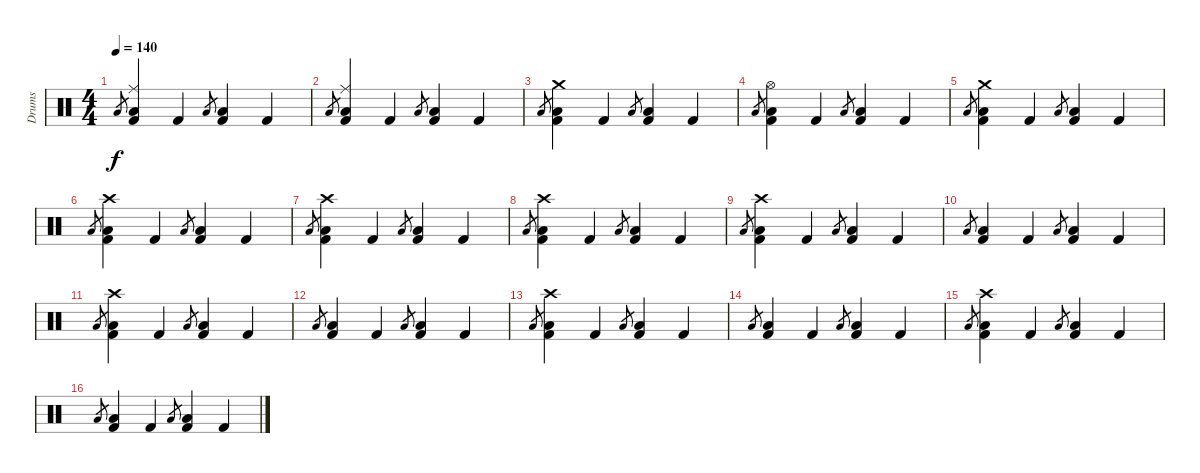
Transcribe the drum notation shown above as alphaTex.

\track ("Drums" "Drums") {instrument percussion}
\staff {score}
\articulation defaults
\ts (4 4)
\tempo 140
\clef neutral
\ks c "Low Floor Tom (hit)".8{gr dy f}
("Ride (middle)" "Low Floor Tom (hit)" "Kick (hit) 2").4{volume 14} "Kick (hit) 2".4 "Low Floor Tom (hit)".8{gr} ("Low Floor Tom (hit)" "Kick (hit) 2").4 "Kick (hit) 2".4 |
"Low Floor Tom (hit)".8{gr} ("Ride (middle)" "Low Floor Tom (hit)" "Kick (hit) 2").4 "Kick (hit) 2".4 "Low Floor Tom (hit)".8{gr} ("Low Floor Tom (hit)" "Kick (hit) 2").4 "Kick (hit) 2".4 |
"Low Floor Tom (hit)".8{gr} ("Crash medium (hit)" "Low Floor Tom (hit)" "Kick (hit) 2").4 "Kick (hit) 2".4 "Low Floor Tom (hit)".8{gr} ("Low Floor Tom (hit)" "Kick (hit) 2").4 "Kick (hit) 2".4 |
"Low Floor Tom (hit)".8{gr} ("Hi-Hat (open)" "Low Floor Tom (hit)" "Kick (hit) 2").4 "Kick (hit) 2".4 "Low Floor Tom (hit)".8{gr} ("Low Floor Tom (hit)" "Kick (hit) 2").4 "Kick (hit) 2".4 |
"Low Floor Tom (hit)".8{gr} ("Crash medium (hit)" "Low Floor Tom (hit)" "Kick (hit) 2").4 "Kick (hit) 2".4 "Low Floor Tom (hit)".8{gr} ("Low Floor Tom (hit)" "Kick (hit) 2").4 "Kick (hit) 2".4 |
"Low Floor Tom (hit)".8{gr} ("Crash high (hit)" "Low Floor Tom (hit)" "Kick (hit) 2").4 "Kick (hit) 2".4 "Low Floor Tom (hit)".8{gr} ("Low Floor Tom (hit)" "Kick (hit) 2").4 "Kick (hit) 2".4 |
"Low Floor Tom (hit)".8{gr} ("Crash high (hit)" "Low Floor Tom (hit)" "Kick (hit) 2").4 "Kick (hit) 2".4 "Low Floor Tom (hit)".8{gr} ("Low Floor Tom (hit)" "Kick (hit) 2").4 "Kick (hit) 2".4 |
"Low Floor Tom (hit)".8{gr} ("Crash high (hit)" "Low Floor Tom (hit)" "Kick (hit) 2").4 "Kick (hit) 2".4 "Low Floor Tom (hit)".8{gr} ("Low Floor Tom (hit)" "Kick (hit) 2").4 "Kick (hit) 2".4 |
"Low Floor Tom (hit)".8{gr} ("Crash high (hit)" "Low Floor Tom (hit)" "Kick (hit) 2").4 "Kick (hit) 2".4 "Low Floor Tom (hit)".8{gr} ("Low Floor Tom (hit)" "Kick (hit) 2").4 "Kick (hit) 2".4 |
"Low Floor Tom (hit)".8{gr} ("Low Floor Tom (hit)" "Kick (hit) 2").4 "Kick (hit) 2".4 "Low Floor Tom (hit)".8{gr} ("Low Floor Tom (hit)" "Kick (hit) 2").4 "Kick (hit) 2".4 |
"Low Floor Tom (hit)".8{gr} ("Crash high (hit)" "Low Floor Tom (hit)" "Kick (hit) 2").4 "Kick (hit) 2".4 "Low Floor Tom (hit)".8{gr} ("Low Floor Tom (hit)" "Kick (hit) 2").4 "Kick (hit) 2".4 |
"Low Floor Tom (hit)".8{gr} ("Low Floor Tom (hit)" "Kick (hit) 2").4 "Kick (hit) 2".4 "Low Floor Tom (hit)".8{gr} ("Low Floor Tom (hit)" "Kick (hit) 2").4 "Kick (hit) 2".4 |
"Low Floor Tom (hit)".8{gr} ("Crash high (hit)" "Low Floor Tom (hit)" "Kick (hit) 2").4 "Kick (hit) 2".4 "Low Floor Tom (hit)".8{gr} ("Low Floor Tom (hit)" "Kick (hit) 2").4 "Kick (hit) 2".4 |
"Low Floor Tom (hit)".8{gr} ("Low Floor Tom (hit)" "Kick (hit) 2").4 "Kick (hit) 2".4 "Low Floor Tom (hit)".8{gr} ("Low Floor Tom (hit)" "Kick (hit) 2").4 "Kick (hit) 2".4 |
"Low Floor Tom (hit)".8{gr} ("Crash high (hit)" "Low Floor Tom (hit)" "Kick (hit) 2").4 "Kick (hit) 2".4 "Low Floor Tom (hit)".8{gr} ("Low Floor Tom (hit)" "Kick (hit) 2").4 "Kick (hit) 2".4 |
"Low Floor Tom (hit)".8{gr} ("Low Floor Tom (hit)" "Kick (hit) 2").4 "Kick (hit) 2".4 "Low Floor Tom (hit)".8{gr} ("Low Floor Tom (hit)" "Kick (hit) 2").4 "Kick (hit) 2".4
